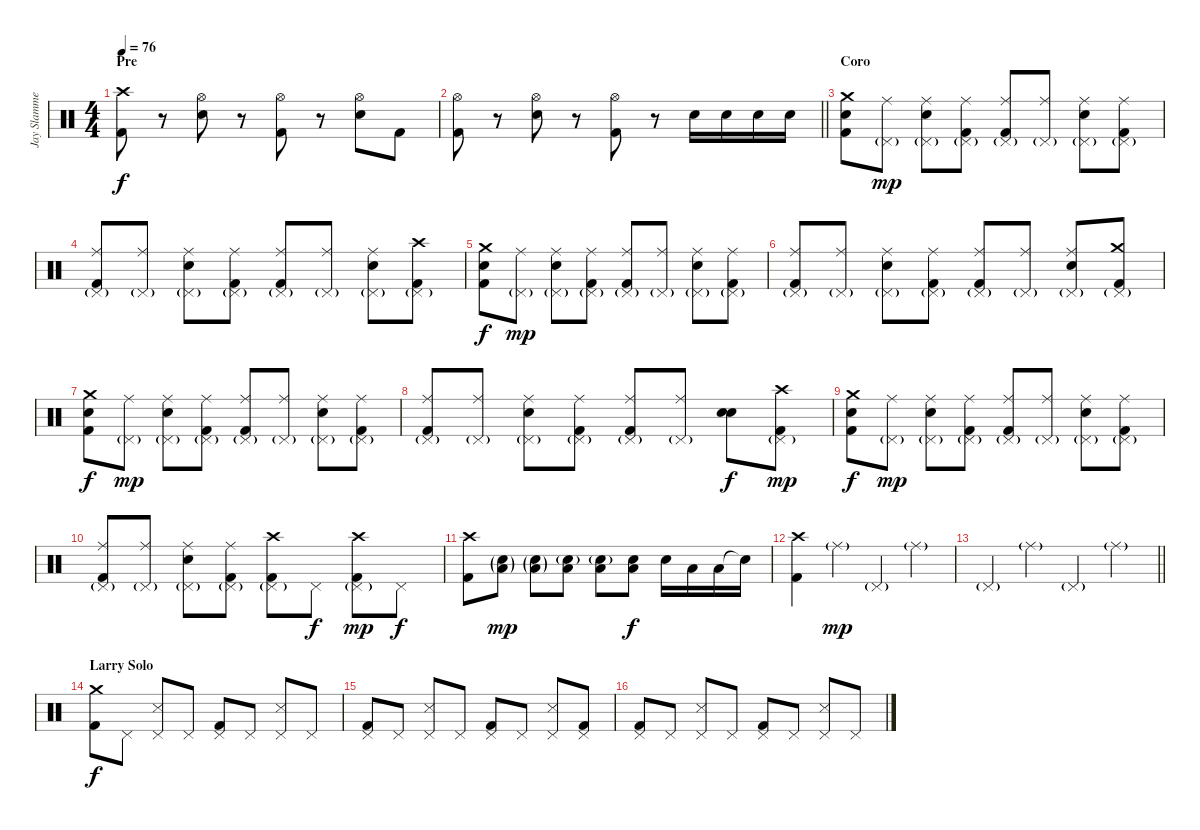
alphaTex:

\track ("Jay Slammer" "Jay Slamme") {instrument percussion}
\staff {score}
\articulation defaults
\ts (4 4)
\section ("" "Pre")
\tempo 76
\clef neutral
\ks c
("Crash high (hit)" "Kick (hit) 2").8{dy f} r.8 ("Hi-Hat (open)" "Electric Snare (hit)").8 r.8 ("Hi-Hat (open)" "Kick (hit) 2").8 r.8 ("Hi-Hat (open)" "Electric Snare (hit)").8 "Kick (hit) 2".8 |
\barLineRight lightlight
("Hi-Hat (open)" "Kick (hit) 2").8 r.8 ("Hi-Hat (open)" "Electric Snare (hit)").8 r.8 ("Hi-Hat (open)" "Kick (hit) 2").8 r.8 "Electric Snare (hit)".16 "Electric Snare (hit)".16 "Electric Snare (hit)".16 "Electric Snare (hit)".16 |
\section ("" "Coro")
("Snare (hit)" "Crash medium (hit)" "Kick (hit) 2").8 ("Pedal Hi-Hat (hit)"{g} "Ride (middle)").8{dy mp} ("Pedal Hi-Hat (hit)"{g} "Ride (middle)" "Electric Snare (hit)").8 ("Pedal Hi-Hat (hit)"{g} "Ride (middle)" "Kick (hit) 2").8 ("Pedal Hi-Hat (hit)"{g} "Ride (middle)" "Kick (hit) 2").8 ("Pedal Hi-Hat (hit)"{g} "Ride (middle)").8 ("Pedal Hi-Hat (hit)"{g} "Ride (middle)" "Electric Snare (hit)").8 ("Pedal Hi-Hat (hit)"{g} "Ride (middle)" "Kick (hit) 2").8 |
("Pedal Hi-Hat (hit)"{g} "Ride (middle)" "Kick (hit) 2").8 ("Pedal Hi-Hat (hit)"{g} "Ride (middle)").8 ("Pedal Hi-Hat (hit)"{g} "Ride (middle)" "Electric Snare (hit)").8 ("Pedal Hi-Hat (hit)"{g} "Ride (middle)" "Kick (hit) 2").8 ("Pedal Hi-Hat (hit)"{g} "Ride (middle)" "Kick (hit) 2").8 ("Pedal Hi-Hat (hit)"{g} "Ride (middle)").8 ("Pedal Hi-Hat (hit)"{g} "Ride (middle)" "Electric Snare (hit)").8 ("Pedal Hi-Hat (hit)"{g} "Crash high (hit)" "Kick (hit) 2").8 |
("Snare (hit)" "Crash medium (hit)" "Kick (hit) 2").8{dy f} ("Pedal Hi-Hat (hit)"{g} "Ride (middle)").8{dy mp} ("Pedal Hi-Hat (hit)"{g} "Ride (middle)" "Electric Snare (hit)").8 ("Pedal Hi-Hat (hit)"{g} "Ride (middle)" "Kick (hit) 2").8 ("Pedal Hi-Hat (hit)"{g} "Ride (middle)" "Kick (hit) 2").8 ("Pedal Hi-Hat (hit)"{g} "Ride (middle)").8 ("Pedal Hi-Hat (hit)"{g} "Ride (middle)" "Electric Snare (hit)").8 ("Pedal Hi-Hat (hit)"{g} "Ride (middle)" "Kick (hit) 2").8 |
("Pedal Hi-Hat (hit)"{g} "Ride (middle)" "Kick (hit) 2").8 ("Pedal Hi-Hat (hit)"{g} "Ride (middle)").8 ("Pedal Hi-Hat (hit)"{g} "Ride (middle)" "Electric Snare (hit)").8 ("Pedal Hi-Hat (hit)"{g} "Ride (middle)" "Kick (hit) 2").8 ("Pedal Hi-Hat (hit)"{g} "Ride (middle)" "Kick (hit) 2").8 ("Pedal Hi-Hat (hit)"{g} "Ride (middle)").8 ("Pedal Hi-Hat (hit)"{g} "Ride (middle)" "Electric Snare (hit)").8 ("Pedal Hi-Hat (hit)"{g} "Crash medium (hit)" "Kick (hit) 2").8 |
("Snare (hit)" "Crash medium (hit)" "Kick (hit) 2").8{dy f} ("Pedal Hi-Hat (hit)"{g} "Ride (middle)").8{dy mp} ("Pedal Hi-Hat (hit)"{g} "Ride (middle)" "Electric Snare (hit)").8 ("Pedal Hi-Hat (hit)"{g} "Ride (middle)" "Kick (hit) 2").8 ("Pedal Hi-Hat (hit)"{g} "Ride (middle)" "Kick (hit) 2").8 ("Pedal Hi-Hat (hit)"{g} "Ride (middle)").8 ("Pedal Hi-Hat (hit)"{g} "Ride (middle)" "Electric Snare (hit)").8 ("Pedal Hi-Hat (hit)"{g} "Ride (middle)" "Kick (hit) 2").8 |
("Pedal Hi-Hat (hit)"{g} "Ride (middle)" "Kick (hit) 2").8 ("Pedal Hi-Hat (hit)"{g} "Ride (middle)").8 ("Pedal Hi-Hat (hit)"{g} "Ride (middle)" "Electric Snare (hit)").8 ("Pedal Hi-Hat (hit)"{g} "Ride (middle)" "Kick (hit) 2").8 ("Pedal Hi-Hat (hit)"{g} "Ride (middle)" "Kick (hit) 2").8 ("Pedal Hi-Hat (hit)"{g} "Ride (middle)").8 ("Electric Snare (hit)" "Electric Snare (hit)").8{bd 60 dy f} ("Pedal Hi-Hat (hit)"{g} "Crash high (hit)" "Kick (hit) 2").8{dy mp} |
("Snare (hit)" "Crash medium (hit)" "Kick (hit) 2").8{dy f} ("Pedal Hi-Hat (hit)"{g} "Ride (middle)").8{dy mp} ("Pedal Hi-Hat (hit)"{g} "Ride (middle)" "Electric Snare (hit)").8 ("Pedal Hi-Hat (hit)"{g} "Ride (middle)" "Kick (hit) 2").8 ("Pedal Hi-Hat (hit)"{g} "Ride (middle)" "Kick (hit) 2").8 ("Pedal Hi-Hat (hit)"{g} "Ride (middle)").8 ("Pedal Hi-Hat (hit)"{g} "Ride (middle)" "Electric Snare (hit)").8 ("Pedal Hi-Hat (hit)"{g} "Ride (middle)" "Kick (hit) 2").8 |
("Pedal Hi-Hat (hit)"{g} "Ride (middle)" "Kick (hit) 2").8 ("Pedal Hi-Hat (hit)"{g} "Ride (middle)").8 ("Pedal Hi-Hat (hit)"{g} "Ride (middle)" "Electric Snare (hit)").8 ("Pedal Hi-Hat (hit)"{g} "Ride (middle)" "Kick (hit) 2").8 ("Pedal Hi-Hat (hit)"{g} "Crash high (hit)" "Kick (hit) 2").8 "Pedal Hi-Hat (hit)".8{dy f} ("Pedal Hi-Hat (hit)"{g} "Crash high (hit)" "Kick (hit) 2").8{dy mp} "Pedal Hi-Hat (hit)".8{dy f} |
("Crash high (hit)" "Kick (hit) 2").8 ("Low Tom (hit)"{g} "Electric Snare (hit)"{g}).8{dy mp} ("Low Tom (hit)"{g} "Electric Snare (hit)"{g}).8 ("Low Tom (hit)" "Electric Snare (hit)"{g}).8 ("Low Tom (hit)" "Electric Snare (hit)"{g}).8 ("Low Tom (hit)" "Electric Snare (hit)").8{dy f} "Electric Snare (hit)".16 "Low Tom (hit)".16 "Low Tom (hit)".16 "Electric Snare (hit)"{t}.16 |
("Crash high (hit)" "Kick (hit) 2").4 "Ride (middle)"{g}.4{dy mp} "Pedal Hi-Hat (hit)"{g}.4 "Ride (middle)"{g}.4 |
\barLineRight lightlight "Pedal Hi-Hat (hit)"{g}.4 "Ride (middle)"{g}.4 "Pedal Hi-Hat (hit)"{g}.4 "Ride (middle)"{g}.4
|
\section ("" "Larry Solo")
("Crash medium (hit)" "Kick (hit) 2").8{dy f} "Pedal Hi-Hat (hit)".8 ("Pedal Hi-Hat (hit)" "Metronome (hit)").8 "Pedal Hi-Hat (hit)".8 ("Pedal Hi-Hat (hit)" "Kick (hit) 2").8 "Pedal Hi-Hat (hit)".8 ("Pedal Hi-Hat (hit)" "Metronome (hit)").8 "Pedal Hi-Hat (hit)".8 |
("Pedal Hi-Hat (hit)" "Kick (hit) 2").8 "Pedal Hi-Hat (hit)".8 ("Pedal Hi-Hat (hit)" "Metronome (hit)").8 "Pedal Hi-Hat (hit)".8 ("Pedal Hi-Hat (hit)" "Kick (hit) 2").8 "Pedal Hi-Hat (hit)".8 ("Pedal Hi-Hat (hit)" "Metronome (hit)").8 ("Pedal Hi-Hat (hit)" "Kick (hit) 2").8 |
("Pedal Hi-Hat (hit)" "Kick (hit) 2").8 "Pedal Hi-Hat (hit)".8 ("Pedal Hi-Hat (hit)" "Metronome (hit)").8 "Pedal Hi-Hat (hit)".8 ("Pedal Hi-Hat (hit)" "Kick (hit) 2").8 "Pedal Hi-Hat (hit)".8 ("Pedal Hi-Hat (hit)" "Metronome (hit)").8 "Pedal Hi-Hat (hit)".8
